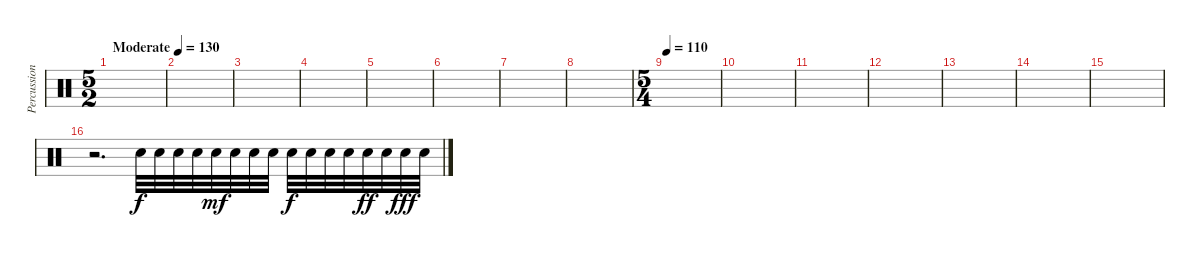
\track ("Percussion" "Percussion") {instrument percussion}
\staff {score}
\articulation defaults
\ts (5 2)
\tempo (130 "Moderate")
\clef neutral
\ks c
|
|
|
|
|
|
|
|
\ts (5 4)
\tempo 110
|
|
|
|
|
|
|
r.2{d} "Electric Snare (hit)".32 "Electric Snare (hit)".32 "Electric Snare (hit)".32 "Electric Snare (hit)".32 "Electric Snare (hit)".32{dy mf} "Electric Snare (hit)".32 "Electric Snare (hit)".32 "Electric Snare (hit)".32 "Electric Snare (hit)".32{dy f} "Electric Snare (hit)".32 "Electric Snare (hit)".32 "Electric Snare (hit)".32 "Electric Snare (hit)".32{dy ff} "Electric Snare (hit)".32 "Electric Snare (hit)".32{dy fff} "Electric Snare (hit)".32
